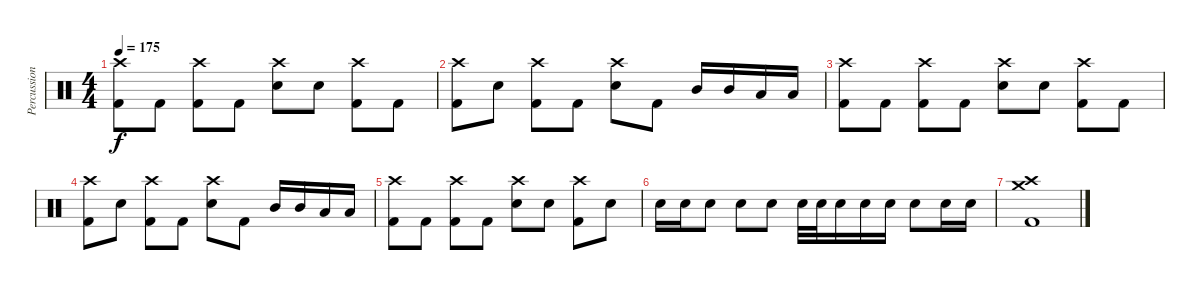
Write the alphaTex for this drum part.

\track ("Percussion" "Percussion") {instrument percussion}
\staff {score}
\articulation defaults
\ts (4 4)
\tempo 175
\clef neutral
\ks c
("Kick (hit) 2" "Crash high (hit)").8{dy f} "Kick (hit) 2".8 ("Kick (hit) 2" "Crash high (hit)").8 "Kick (hit) 2".8 ("Electric Snare (hit)" "Crash high (hit)").8 "Electric Snare (hit)".8 ("Kick (hit) 2" "Crash high (hit)").8 "Kick (hit) 2".8 |
("Kick (hit) 2" "Crash high (hit)").8 "Electric Snare (hit)".8 ("Kick (hit) 2" "Crash high (hit)").8 "Kick (hit) 2".8 ("Electric Snare (hit)" "Crash high (hit)").8 "Kick (hit) 2".8 "Mid Tom (hit)".16 "Mid Tom (hit)".16 "Low Tom (hit)".16 "Low Tom (hit)".16 |
("Kick (hit) 2" "Crash high (hit)").8 "Kick (hit) 2".8 ("Kick (hit) 2" "Crash high (hit)").8 "Kick (hit) 2".8 ("Electric Snare (hit)" "Crash high (hit)").8 "Electric Snare (hit)".8 ("Kick (hit) 2" "Crash high (hit)").8 "Kick (hit) 2".8 |
("Kick (hit) 2" "Crash high (hit)").8 "Electric Snare (hit)".8 ("Kick (hit) 2" "Crash high (hit)").8 "Kick (hit) 2".8 ("Electric Snare (hit)" "Crash high (hit)").8 "Kick (hit) 2".8 "Mid Tom (hit)".16 "Mid Tom (hit)".16 "Low Tom (hit)".16 "Low Tom (hit)".16 |
("Kick (hit) 2" "Crash high (hit)").8 "Kick (hit) 2".8 ("Kick (hit) 2" "Crash high (hit)").8 "Kick (hit) 2".8 ("Electric Snare (hit)" "Crash high (hit)").8 "Electric Snare (hit)".8 ("Kick (hit) 2" "Crash high (hit)").8 "Electric Snare (hit)".8 |
"Electric Snare (hit)".16 "Electric Snare (hit)".16 "Electric Snare (hit)".8 "Electric Snare (hit)".8 "Electric Snare (hit)".8 "Electric Snare (hit)".32 "Electric Snare (hit)".32 "Electric Snare (hit)".16 "Electric Snare (hit)".16 "Electric Snare (hit)".16 "Electric Snare (hit)".8 "Electric Snare (hit)".16 "Electric Snare (hit)".16 |
("Kick (hit) 2" "Crash medium (hit)" "Crash high (hit)").1
